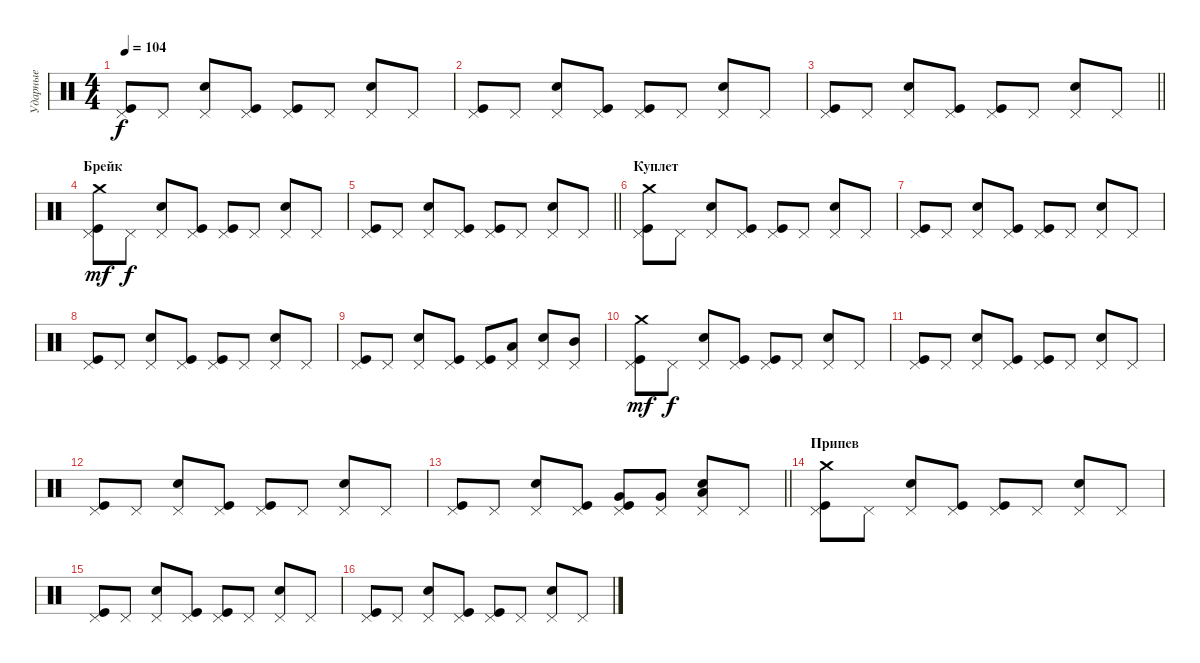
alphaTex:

\track ("Ударные" "Ударные") {instrument percussion}
\staff {score}
\articulation defaults
\ts (4 4)
\tempo 104
\clef neutral
\ks c
("Pedal Hi-Hat (hit)" "Kick (hit)").8{dy f} "Pedal Hi-Hat (hit)".8 ("Pedal Hi-Hat (hit)" "Snare (hit) 2").8 ("Pedal Hi-Hat (hit)" "Kick (hit)").8 ("Pedal Hi-Hat (hit)" "Kick (hit)").8 "Pedal Hi-Hat (hit)".8 ("Pedal Hi-Hat (hit)" "Snare (hit) 2").8 "Pedal Hi-Hat (hit)".8 |
("Pedal Hi-Hat (hit)" "Kick (hit)").8 "Pedal Hi-Hat (hit)".8 ("Pedal Hi-Hat (hit)" "Snare (hit) 2").8 ("Pedal Hi-Hat (hit)" "Kick (hit)").8 ("Pedal Hi-Hat (hit)" "Kick (hit)").8 "Pedal Hi-Hat (hit)".8 ("Pedal Hi-Hat (hit)" "Snare (hit) 2").8 "Pedal Hi-Hat (hit)".8 |
\barLineRight lightlight
("Pedal Hi-Hat (hit)" "Kick (hit)").8 "Pedal Hi-Hat (hit)".8 ("Pedal Hi-Hat (hit)" "Snare (hit) 2").8 ("Pedal Hi-Hat (hit)" "Kick (hit)").8 ("Pedal Hi-Hat (hit)" "Kick (hit)").8 "Pedal Hi-Hat (hit)".8 ("Pedal Hi-Hat (hit)" "Snare (hit) 2").8 "Pedal Hi-Hat (hit)".8 |
\section ("" "Брейк")
("Pedal Hi-Hat (hit)" "Kick (hit)" "Crash medium (hit)").8{dy mf} "Pedal Hi-Hat (hit)".8{dy f} ("Pedal Hi-Hat (hit)" "Snare (hit) 2").8 ("Pedal Hi-Hat (hit)" "Kick (hit)").8 ("Pedal Hi-Hat (hit)" "Kick (hit)").8 "Pedal Hi-Hat (hit)".8 ("Pedal Hi-Hat (hit)" "Snare (hit) 2").8 "Pedal Hi-Hat (hit)".8 |
\barLineRight lightlight
("Pedal Hi-Hat (hit)" "Kick (hit)").8 "Pedal Hi-Hat (hit)".8 ("Pedal Hi-Hat (hit)" "Snare (hit) 2").8 ("Pedal Hi-Hat (hit)" "Kick (hit)").8 ("Pedal Hi-Hat (hit)" "Kick (hit)").8 "Pedal Hi-Hat (hit)".8 ("Pedal Hi-Hat (hit)" "Snare (hit) 2").8 "Pedal Hi-Hat (hit)".8 |
\section ("" "Куплет")
("Pedal Hi-Hat (hit)" "Kick (hit)" "Crash medium (hit)").8 "Pedal Hi-Hat (hit)".8 ("Pedal Hi-Hat (hit)" "Snare (hit) 2").8 ("Pedal Hi-Hat (hit)" "Kick (hit)").8 ("Pedal Hi-Hat (hit)" "Kick (hit)").8 "Pedal Hi-Hat (hit)".8 ("Pedal Hi-Hat (hit)" "Snare (hit) 2").8 "Pedal Hi-Hat (hit)".8 |
("Pedal Hi-Hat (hit)" "Kick (hit)").8 "Pedal Hi-Hat (hit)".8 ("Pedal Hi-Hat (hit)" "Snare (hit) 2").8 ("Pedal Hi-Hat (hit)" "Kick (hit)").8 ("Pedal Hi-Hat (hit)" "Kick (hit)").8 "Pedal Hi-Hat (hit)".8 ("Pedal Hi-Hat (hit)" "Snare (hit) 2").8 "Pedal Hi-Hat (hit)".8 |
("Pedal Hi-Hat (hit)" "Kick (hit)").8 "Pedal Hi-Hat (hit)".8 ("Pedal Hi-Hat (hit)" "Snare (hit) 2").8 ("Pedal Hi-Hat (hit)" "Kick (hit)").8 ("Pedal Hi-Hat (hit)" "Kick (hit)").8 "Pedal Hi-Hat (hit)".8 ("Pedal Hi-Hat (hit)" "Snare (hit) 2").8 "Pedal Hi-Hat (hit)".8 |
("Pedal Hi-Hat (hit)" "Kick (hit)").8 "Pedal Hi-Hat (hit)".8 ("Pedal Hi-Hat (hit)" "Snare (hit) 2").8 ("Pedal Hi-Hat (hit)" "Kick (hit)").8 ("Pedal Hi-Hat (hit)" "Kick (hit)").8 ("Pedal Hi-Hat (hit)" "Low Tom (hit)").8 ("Pedal Hi-Hat (hit)" "Snare (hit) 2").8 ("Pedal Hi-Hat (hit)" "Mid Tom (hit)").8 |
("Pedal Hi-Hat (hit)" "Kick (hit)" "Crash medium (hit)").8{dy mf} "Pedal Hi-Hat (hit)".8{dy f} ("Pedal Hi-Hat (hit)" "Snare (hit) 2").8 ("Pedal Hi-Hat (hit)" "Kick (hit)").8 ("Pedal Hi-Hat (hit)" "Kick (hit)").8 "Pedal Hi-Hat (hit)".8 ("Pedal Hi-Hat (hit)" "Snare (hit) 2").8 "Pedal Hi-Hat (hit)".8 |
("Pedal Hi-Hat (hit)" "Kick (hit)").8 "Pedal Hi-Hat (hit)".8 ("Pedal Hi-Hat (hit)" "Snare (hit) 2").8 ("Pedal Hi-Hat (hit)" "Kick (hit)").8 ("Pedal Hi-Hat (hit)" "Kick (hit)").8 "Pedal Hi-Hat (hit)".8 ("Pedal Hi-Hat (hit)" "Snare (hit) 2").8 "Pedal Hi-Hat (hit)".8 |
("Pedal Hi-Hat (hit)" "Kick (hit)").8 "Pedal Hi-Hat (hit)".8 ("Pedal Hi-Hat (hit)" "Snare (hit) 2").8 ("Pedal Hi-Hat (hit)" "Kick (hit)").8 ("Pedal Hi-Hat (hit)" "Kick (hit)").8 "Pedal Hi-Hat (hit)".8 ("Pedal Hi-Hat (hit)" "Snare (hit) 2").8 "Pedal Hi-Hat (hit)".8 |
\barLineRight lightlight
("Pedal Hi-Hat (hit)" "Kick (hit)").8 "Pedal Hi-Hat (hit)".8 ("Pedal Hi-Hat (hit)" "Snare (hit) 2").8 ("Pedal Hi-Hat (hit)" "Kick (hit)").8 ("Pedal Hi-Hat (hit)" "Kick (hit)" "Very Low Tom (hit)").8 ("Pedal Hi-Hat (hit)" "Very Low Tom (hit)").8 ("Pedal Hi-Hat (hit)" "Snare (hit) 2" "Low Tom (hit)").8 "Pedal Hi-Hat (hit)".8 |
\section ("" "Припев")
("Pedal Hi-Hat (hit)" "Kick (hit)" "Crash medium (hit)").8 "Pedal Hi-Hat (hit)".8 ("Pedal Hi-Hat (hit)" "Snare (hit) 2").8 ("Pedal Hi-Hat (hit)" "Kick (hit)").8 ("Pedal Hi-Hat (hit)" "Kick (hit)").8 "Pedal Hi-Hat (hit)".8 ("Pedal Hi-Hat (hit)" "Snare (hit) 2").8 "Pedal Hi-Hat (hit)".8 |
("Pedal Hi-Hat (hit)" "Kick (hit)").8 "Pedal Hi-Hat (hit)".8 ("Pedal Hi-Hat (hit)" "Snare (hit) 2").8 ("Pedal Hi-Hat (hit)" "Kick (hit)").8 ("Pedal Hi-Hat (hit)" "Kick (hit)").8 "Pedal Hi-Hat (hit)".8 ("Pedal Hi-Hat (hit)" "Snare (hit) 2").8 "Pedal Hi-Hat (hit)".8 |
("Pedal Hi-Hat (hit)" "Kick (hit)").8 "Pedal Hi-Hat (hit)".8 ("Pedal Hi-Hat (hit)" "Snare (hit) 2").8 ("Pedal Hi-Hat (hit)" "Kick (hit)").8 ("Pedal Hi-Hat (hit)" "Kick (hit)").8 "Pedal Hi-Hat (hit)".8 ("Pedal Hi-Hat (hit)" "Snare (hit) 2").8 "Pedal Hi-Hat (hit)".8
